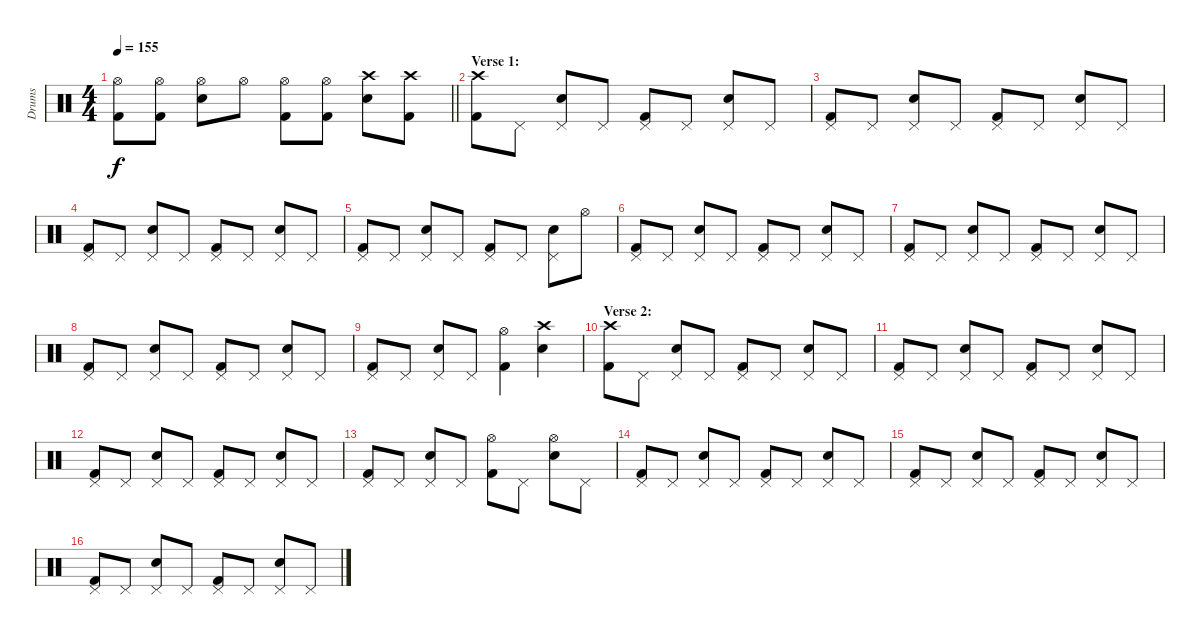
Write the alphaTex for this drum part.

\track ("Drums" "Drums") {instrument percussion}
\staff {score}
\articulation defaults
\ts (4 4)
\tempo 155
\clef neutral
\barLineRight lightlight
\ks c
("Hi-Hat (open)"{t} "Kick (hit) 2"{t}).8{dy f} ("Hi-Hat (open)" "Kick (hit) 2").8 ("Hi-Hat (open)" "Electric Snare (hit)").8 "Hi-Hat (open)".8 ("Hi-Hat (open)" "Kick (hit) 2").8 ("Hi-Hat (open)" "Kick (hit) 2").8 ("Crash high (hit)" "Electric Snare (hit)").8 ("Crash high (hit)" "Kick (hit) 2").8 |
\section ("" "Verse 1:")
("Crash high (hit)" "Kick (hit) 2").8 "Pedal Hi-Hat (hit)".8 ("Pedal Hi-Hat (hit)" "Electric Snare (hit)").8 "Pedal Hi-Hat (hit)".8 ("Pedal Hi-Hat (hit)" "Kick (hit) 2").8 "Pedal Hi-Hat (hit)".8 ("Pedal Hi-Hat (hit)" "Electric Snare (hit)").8 "Pedal Hi-Hat (hit)".8 |
("Pedal Hi-Hat (hit)" "Kick (hit) 2").8 "Pedal Hi-Hat (hit)".8 ("Pedal Hi-Hat (hit)" "Electric Snare (hit)").8 "Pedal Hi-Hat (hit)".8 ("Pedal Hi-Hat (hit)" "Kick (hit) 2").8 "Pedal Hi-Hat (hit)".8 ("Pedal Hi-Hat (hit)" "Electric Snare (hit)").8 "Pedal Hi-Hat (hit)".8 |
("Pedal Hi-Hat (hit)" "Kick (hit) 2").8 "Pedal Hi-Hat (hit)".8 ("Pedal Hi-Hat (hit)" "Electric Snare (hit)").8 "Pedal Hi-Hat (hit)".8 ("Pedal Hi-Hat (hit)" "Kick (hit) 2").8 "Pedal Hi-Hat (hit)".8 ("Pedal Hi-Hat (hit)" "Electric Snare (hit)").8 "Pedal Hi-Hat (hit)".8 |
("Pedal Hi-Hat (hit)" "Kick (hit) 2").8 "Pedal Hi-Hat (hit)".8 ("Pedal Hi-Hat (hit)" "Electric Snare (hit)").8 "Pedal Hi-Hat (hit)".8 ("Pedal Hi-Hat (hit)" "Kick (hit) 2").8 "Pedal Hi-Hat (hit)".8 ("Pedal Hi-Hat (hit)" "Electric Snare (hit)").8 "Hi-Hat (open)".8 |
("Pedal Hi-Hat (hit)" "Kick (hit) 2").8 "Pedal Hi-Hat (hit)".8 ("Pedal Hi-Hat (hit)" "Electric Snare (hit)").8 "Pedal Hi-Hat (hit)".8 ("Pedal Hi-Hat (hit)" "Kick (hit) 2").8 "Pedal Hi-Hat (hit)".8 ("Pedal Hi-Hat (hit)" "Electric Snare (hit)").8 "Pedal Hi-Hat (hit)".8 |
("Pedal Hi-Hat (hit)" "Kick (hit) 2").8 "Pedal Hi-Hat (hit)".8 ("Pedal Hi-Hat (hit)" "Electric Snare (hit)").8 "Pedal Hi-Hat (hit)".8 ("Pedal Hi-Hat (hit)" "Kick (hit) 2").8 "Pedal Hi-Hat (hit)".8 ("Pedal Hi-Hat (hit)" "Electric Snare (hit)").8 "Pedal Hi-Hat (hit)".8 |
("Pedal Hi-Hat (hit)" "Kick (hit) 2").8 "Pedal Hi-Hat (hit)".8 ("Pedal Hi-Hat (hit)" "Electric Snare (hit)").8 "Pedal Hi-Hat (hit)".8 ("Pedal Hi-Hat (hit)" "Kick (hit) 2").8 "Pedal Hi-Hat (hit)".8 ("Pedal Hi-Hat (hit)" "Electric Snare (hit)").8 "Pedal Hi-Hat (hit)".8 |
("Pedal Hi-Hat (hit)" "Kick (hit) 2").8 "Pedal Hi-Hat (hit)".8 ("Pedal Hi-Hat (hit)" "Electric Snare (hit)").8 "Pedal Hi-Hat (hit)".8 ("Hi-Hat (open)" "Kick (hit) 2").4 ("Crash high (hit)" "Electric Snare (hit)").4 |
\section ("" "Verse 2:")
("Crash high (hit)" "Kick (hit) 2").8 "Pedal Hi-Hat (hit)".8 ("Pedal Hi-Hat (hit)" "Electric Snare (hit)").8 "Pedal Hi-Hat (hit)".8 ("Pedal Hi-Hat (hit)" "Kick (hit) 2").8 "Pedal Hi-Hat (hit)".8 ("Pedal Hi-Hat (hit)" "Electric Snare (hit)").8 "Pedal Hi-Hat (hit)".8 |
("Pedal Hi-Hat (hit)" "Kick (hit) 2").8 "Pedal Hi-Hat (hit)".8 ("Pedal Hi-Hat (hit)" "Electric Snare (hit)").8 "Pedal Hi-Hat (hit)".8 ("Pedal Hi-Hat (hit)" "Kick (hit) 2").8 "Pedal Hi-Hat (hit)".8 ("Pedal Hi-Hat (hit)" "Electric Snare (hit)").8 "Pedal Hi-Hat (hit)".8 |
("Pedal Hi-Hat (hit)" "Kick (hit) 2").8 "Pedal Hi-Hat (hit)".8 ("Pedal Hi-Hat (hit)" "Electric Snare (hit)").8 "Pedal Hi-Hat (hit)".8 ("Pedal Hi-Hat (hit)" "Kick (hit) 2").8 "Pedal Hi-Hat (hit)".8 ("Pedal Hi-Hat (hit)" "Electric Snare (hit)").8 "Pedal Hi-Hat (hit)".8 |
("Pedal Hi-Hat (hit)" "Kick (hit) 2").8 "Pedal Hi-Hat (hit)".8 ("Pedal Hi-Hat (hit)" "Electric Snare (hit)").8 "Pedal Hi-Hat (hit)".8 ("Hi-Hat (open)" "Kick (hit) 2").8 "Pedal Hi-Hat (hit)".8 ("Hi-Hat (open)" "Electric Snare (hit)").8 "Pedal Hi-Hat (hit)".8 |
("Pedal Hi-Hat (hit)" "Kick (hit) 2").8 "Pedal Hi-Hat (hit)".8 ("Pedal Hi-Hat (hit)" "Electric Snare (hit)").8 "Pedal Hi-Hat (hit)".8 ("Pedal Hi-Hat (hit)" "Kick (hit) 2").8 "Pedal Hi-Hat (hit)".8 ("Pedal Hi-Hat (hit)" "Electric Snare (hit)").8 "Pedal Hi-Hat (hit)".8 |
("Pedal Hi-Hat (hit)" "Kick (hit) 2").8 "Pedal Hi-Hat (hit)".8 ("Pedal Hi-Hat (hit)" "Electric Snare (hit)").8 "Pedal Hi-Hat (hit)".8 ("Pedal Hi-Hat (hit)" "Kick (hit) 2").8 "Pedal Hi-Hat (hit)".8 ("Pedal Hi-Hat (hit)" "Electric Snare (hit)").8 "Pedal Hi-Hat (hit)".8 |
("Pedal Hi-Hat (hit)" "Kick (hit) 2").8 "Pedal Hi-Hat (hit)".8 ("Pedal Hi-Hat (hit)" "Electric Snare (hit)").8 "Pedal Hi-Hat (hit)".8 ("Pedal Hi-Hat (hit)" "Kick (hit) 2").8 "Pedal Hi-Hat (hit)".8 ("Pedal Hi-Hat (hit)" "Electric Snare (hit)").8 "Pedal Hi-Hat (hit)".8
